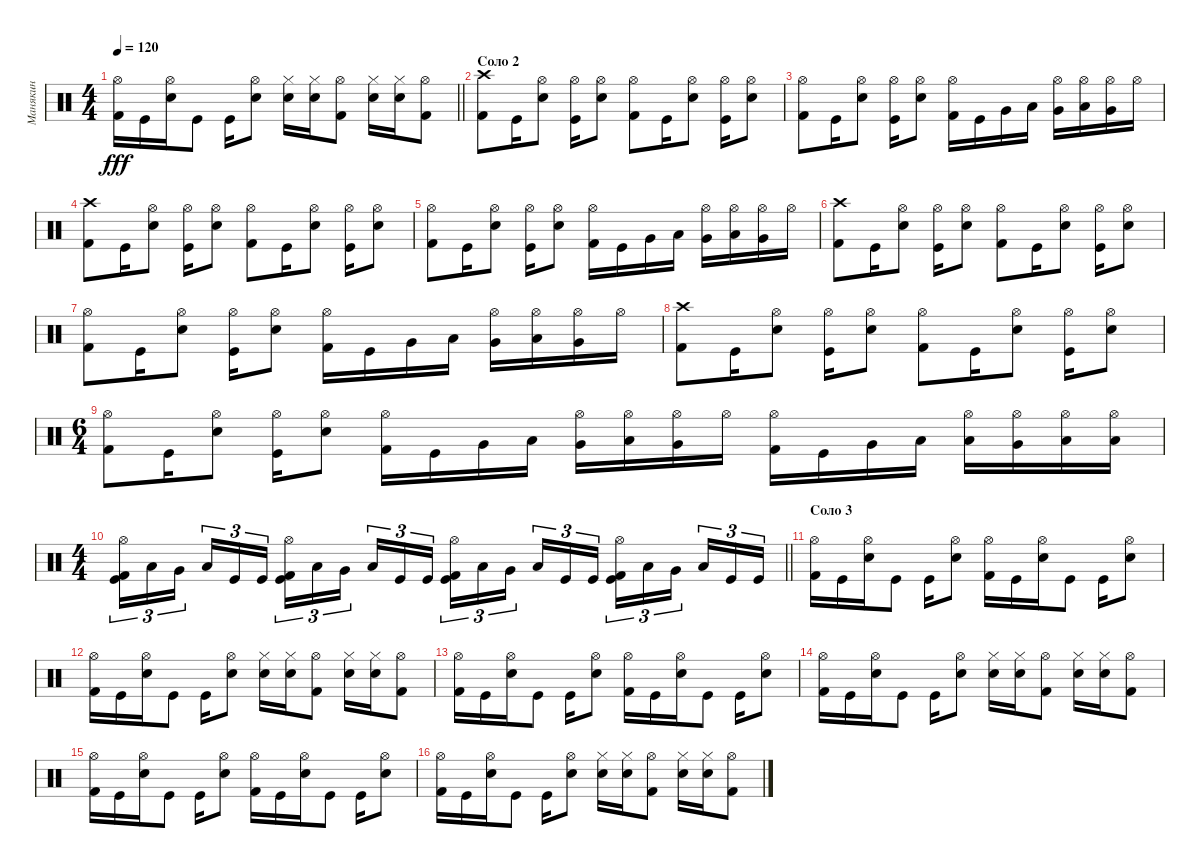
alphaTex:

\track ("Манякин" "Манякин") {instrument percussion}
\staff {score}
\articulation defaults
\ts (4 4)
\tempo 120
\clef neutral
\barLineRight lightlight
\ks c
("Hi-Hat (open)" "Kick (hit) 2").16{dy fff} "Kick (hit)".16 ("Hi-Hat (open)" "Snare (hit) 2").16 "Kick (hit)".8 "Kick (hit)".16 ("Hi-Hat (open)" "Snare (hit) 2").8 ("Hi-Hat (closed)" "Snare (hit) 2").16 ("Hi-Hat (closed)" "Snare (hit) 2").16 ("Hi-Hat (open)" "Kick (hit) 2").8 ("Hi-Hat (closed)" "Snare (hit) 2").16 ("Hi-Hat (closed)" "Snare (hit) 2").16 ("Hi-Hat (open)" "Kick (hit) 2").8 |
\section ("" "Соло 2")
("Crash high (hit)" "Kick (hit) 2").8 "Kick (hit)".16 ("Hi-Hat (open)" "Snare (hit) 2").8 ("Kick (hit)" "Hi-Hat (open)").16 ("Hi-Hat (open)" "Snare (hit) 2").8 ("Kick (hit) 2" "Hi-Hat (open)").8 "Kick (hit)".16 ("Hi-Hat (open)" "Snare (hit) 2").8 ("Kick (hit)" "Hi-Hat (open)").16 ("Hi-Hat (open)" "Snare (hit) 2").8 |
("Kick (hit) 2" "Hi-Hat (open)").8 "Kick (hit)".16 ("Hi-Hat (open)" "Snare (hit) 2").8 ("Kick (hit)" "Hi-Hat (open)").16 ("Hi-Hat (open)" "Snare (hit) 2").8 ("Hi-Hat (open)" "Kick (hit) 2").16 "Kick (hit)".16 "Very Low Tom (hit)".16 "Low Floor Tom (hit)".16 ("Hi-Hat (open)" "Very Low Tom (hit)").16 ("Hi-Hat (open)" "Low Floor Tom (hit)").16 ("Hi-Hat (open)" "Very Low Tom (hit)").16 "Hi-Hat (open)".16 |
("Crash high (hit)" "Kick (hit) 2").8 "Kick (hit)".16 ("Hi-Hat (open)" "Snare (hit) 2").8 ("Kick (hit)" "Hi-Hat (open)").16 ("Hi-Hat (open)" "Snare (hit) 2").8 ("Kick (hit) 2" "Hi-Hat (open)").8 "Kick (hit)".16 ("Hi-Hat (open)" "Snare (hit) 2").8 ("Kick (hit)" "Hi-Hat (open)").16 ("Hi-Hat (open)" "Snare (hit) 2").8 |
("Kick (hit) 2" "Hi-Hat (open)").8 "Kick (hit)".16 ("Hi-Hat (open)" "Snare (hit) 2").8 ("Kick (hit)" "Hi-Hat (open)").16 ("Hi-Hat (open)" "Snare (hit) 2").8 ("Hi-Hat (open)" "Kick (hit) 2").16 "Kick (hit)".16 "Very Low Tom (hit)".16 "Low Floor Tom (hit)".16 ("Hi-Hat (open)" "Very Low Tom (hit)").16 ("Hi-Hat (open)" "Low Floor Tom (hit)").16 ("Hi-Hat (open)" "Very Low Tom (hit)").16 "Hi-Hat (open)".16 |
("Crash high (hit)" "Kick (hit) 2").8 "Kick (hit)".16 ("Hi-Hat (open)" "Snare (hit) 2").8 ("Kick (hit)" "Hi-Hat (open)").16 ("Hi-Hat (open)" "Snare (hit) 2").8 ("Kick (hit) 2" "Hi-Hat (open)").8 "Kick (hit)".16 ("Hi-Hat (open)" "Snare (hit) 2").8 ("Kick (hit)" "Hi-Hat (open)").16 ("Hi-Hat (open)" "Snare (hit) 2").8 |
("Kick (hit) 2" "Hi-Hat (open)").8 "Kick (hit)".16 ("Hi-Hat (open)" "Snare (hit) 2").8 ("Kick (hit)" "Hi-Hat (open)").16 ("Hi-Hat (open)" "Snare (hit) 2").8 ("Hi-Hat (open)" "Kick (hit) 2").16 "Kick (hit)".16 "Very Low Tom (hit)".16 "Low Floor Tom (hit)".16 ("Hi-Hat (open)" "Very Low Tom (hit)").16 ("Hi-Hat (open)" "Low Floor Tom (hit)").16 ("Hi-Hat (open)" "Very Low Tom (hit)").16 "Hi-Hat (open)".16 |
("Crash high (hit)" "Kick (hit) 2").8 "Kick (hit)".16 ("Hi-Hat (open)" "Snare (hit) 2").8 ("Kick (hit)" "Hi-Hat (open)").16 ("Hi-Hat (open)" "Snare (hit) 2").8 ("Kick (hit) 2" "Hi-Hat (open)").8 "Kick (hit)".16 ("Hi-Hat (open)" "Snare (hit) 2").8 ("Kick (hit)" "Hi-Hat (open)").16 ("Hi-Hat (open)" "Snare (hit) 2").8 |
\ts (6 4)
("Kick (hit) 2" "Hi-Hat (open)").8 "Kick (hit)".16 ("Hi-Hat (open)" "Snare (hit) 2").8 ("Kick (hit)" "Hi-Hat (open)").16 ("Hi-Hat (open)" "Snare (hit) 2").8 ("Hi-Hat (open)" "Kick (hit) 2").16 "Kick (hit)".16 "Very Low Tom (hit)".16 "Low Floor Tom (hit)".16 ("Hi-Hat (open)" "Very Low Tom (hit)").16 ("Hi-Hat (open)" "Low Floor Tom (hit)").16 ("Hi-Hat (open)" "Very Low Tom (hit)").16 "Hi-Hat (open)".16 ("Hi-Hat (open)" "Kick (hit) 2").16 "Kick (hit)".16 "Very Low Tom (hit)".16 "Low Floor Tom (hit)".16 ("Hi-Hat (open)" "Low Tom (hit)").16 ("Hi-Hat (open)" "Very Low Tom (hit)").16 ("Hi-Hat (open)" "Low Floor Tom (hit)").16 ("Hi-Hat (open)" "Low Tom (hit)").16 |
\ts (4 4)
\barLineRight lightlight
("Kick (hit) 2" "Hi-Hat (open)" "Kick (hit)").16{tu (3 2)} "Low Tom (hit)".16{tu (3 2)} "Very Low Tom (hit)".16{tu (3 2)} "Low Floor Tom (hit)".16{tu (3 2)} "Kick (hit)".16{tu (3 2)} "Kick (hit)".16{tu (3 2)} ("Kick (hit) 2" "Hi-Hat (open)" "Kick (hit)").16{tu (3 2)} "Low Tom (hit)".16{tu (3 2)} "Very Low Tom (hit)".16{tu (3 2)} "Low Floor Tom (hit)".16{tu (3 2)} "Kick (hit)".16{tu (3 2)} "Kick (hit)".16{tu (3 2)} ("Kick (hit) 2" "Hi-Hat (open)" "Kick (hit)").16{tu (3 2)} "Low Tom (hit)".16{tu (3 2)} "Very Low Tom (hit)".16{tu (3 2)} "Low Floor Tom (hit)".16{tu (3 2)} "Kick (hit)".16{tu (3 2)} "Kick (hit)".16{tu (3 2)} ("Kick (hit) 2" "Hi-Hat (open)" "Kick (hit)").16{tu (3 2)} "Low Tom (hit)".16{tu (3 2)} "Very Low Tom (hit)".16{tu (3 2)} "Low Floor Tom (hit)".16{tu (3 2)} "Kick (hit)".16{tu (3 2)} "Kick (hit)".16{tu (3 2)} |
\section ("" "Соло 3")
("Hi-Hat (open)" "Kick (hit) 2").16 "Kick (hit)".16 ("Hi-Hat (open)" "Snare (hit) 2").16 "Kick (hit)".8 "Kick (hit)".16 ("Hi-Hat (open)" "Snare (hit) 2").8 ("Kick (hit) 2" "Hi-Hat (open)").16 "Kick (hit)".16 ("Hi-Hat (open)" "Snare (hit) 2").16 "Kick (hit)".8 "Kick (hit)".16 ("Hi-Hat (open)" "Snare (hit) 2").8 |
("Hi-Hat (open)" "Kick (hit) 2").16 "Kick (hit)".16 ("Hi-Hat (open)" "Snare (hit) 2").16 "Kick (hit)".8 "Kick (hit)".16 ("Hi-Hat (open)" "Snare (hit) 2").8 ("Hi-Hat (closed)" "Snare (hit) 2").16 ("Hi-Hat (closed)" "Snare (hit) 2").16 ("Hi-Hat (open)" "Kick (hit) 2").8 ("Hi-Hat (closed)" "Snare (hit) 2").16 ("Hi-Hat (closed)" "Snare (hit) 2").16 ("Hi-Hat (open)" "Kick (hit) 2").8 |
("Hi-Hat (open)" "Kick (hit) 2").16 "Kick (hit)".16 ("Hi-Hat (open)" "Snare (hit) 2").16 "Kick (hit)".8 "Kick (hit)".16 ("Hi-Hat (open)" "Snare (hit) 2").8 ("Kick (hit) 2" "Hi-Hat (open)").16 "Kick (hit)".16 ("Hi-Hat (open)" "Snare (hit) 2").16 "Kick (hit)".8 "Kick (hit)".16 ("Hi-Hat (open)" "Snare (hit) 2").8 |
("Hi-Hat (open)" "Kick (hit) 2").16 "Kick (hit)".16 ("Hi-Hat (open)" "Snare (hit) 2").16 "Kick (hit)".8 "Kick (hit)".16 ("Hi-Hat (open)" "Snare (hit) 2").8 ("Hi-Hat (closed)" "Snare (hit) 2").16 ("Hi-Hat (closed)" "Snare (hit) 2").16 ("Hi-Hat (open)" "Kick (hit) 2").8 ("Hi-Hat (closed)" "Snare (hit) 2").16 ("Hi-Hat (closed)" "Snare (hit) 2").16 ("Hi-Hat (open)" "Kick (hit) 2").8 |
("Hi-Hat (open)" "Kick (hit) 2").16 "Kick (hit)".16 ("Hi-Hat (open)" "Snare (hit) 2").16 "Kick (hit)".8 "Kick (hit)".16 ("Hi-Hat (open)" "Snare (hit) 2").8 ("Kick (hit) 2" "Hi-Hat (open)").16 "Kick (hit)".16 ("Hi-Hat (open)" "Snare (hit) 2").16 "Kick (hit)".8 "Kick (hit)".16 ("Hi-Hat (open)" "Snare (hit) 2").8 |
("Hi-Hat (open)" "Kick (hit) 2").16 "Kick (hit)".16 ("Hi-Hat (open)" "Snare (hit) 2").16 "Kick (hit)".8 "Kick (hit)".16 ("Hi-Hat (open)" "Snare (hit) 2").8 ("Hi-Hat (closed)" "Snare (hit) 2").16 ("Hi-Hat (closed)" "Snare (hit) 2").16 ("Hi-Hat (open)" "Kick (hit) 2").8 ("Hi-Hat (closed)" "Snare (hit) 2").16 ("Hi-Hat (closed)" "Snare (hit) 2").16 ("Hi-Hat (open)" "Kick (hit) 2").8
